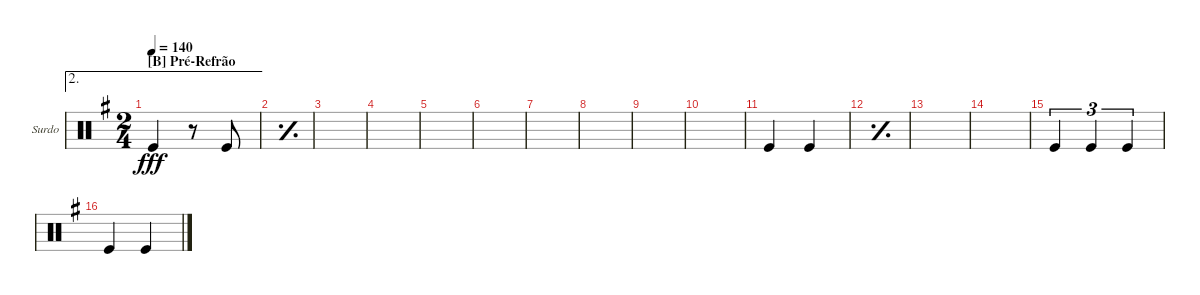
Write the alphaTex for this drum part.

\defaultSystemsLayout 4
\bracketExtendMode groupsimilarinstruments
\firstSystemTrackNameOrientation horizontal
\otherSystemsTrackNameOrientation horizontal
\track ("Surdo" "Surdo") {instrument percussion}
\staff {score}
\articulation defaults
\ae 2
\ts (2 4)
\section ("B" "Pré-Refrão")
\tempo 140
\clef neutral
\ks g "Kick (hit)".4{dy fff}
r.8 "Kick (hit)".8 |
\simile simple
|
|
|
|
|
|
|
|
|
\simile none "Kick (hit)".4 "Kick (hit)".4
|
\simile simple
|
|
|
\simile none "Kick (hit)".4{tu (3 2)} "Kick (hit)".4{tu (3 2)} "Kick (hit)".4{tu (3 2)}
|
"Kick (hit)".4 "Kick (hit)".4
